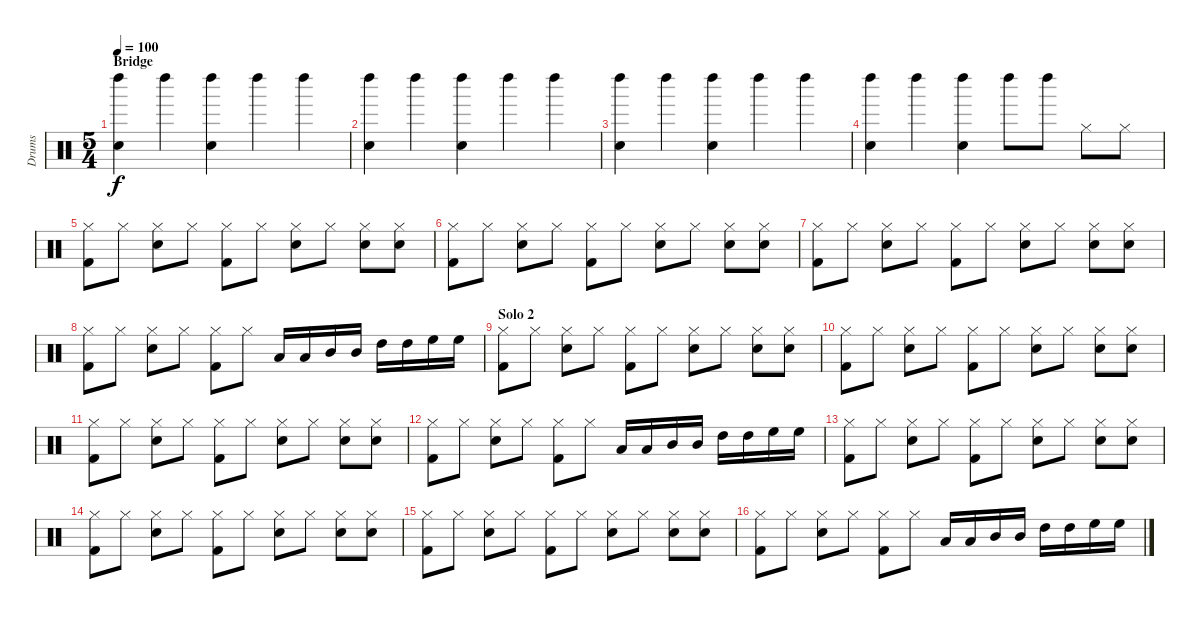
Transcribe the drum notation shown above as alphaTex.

\track ("Drums" "Drums") {instrument percussion}
\staff {score}
\articulation defaults
\ts (5 4)
\section ("" "Bridge")
\tempo 100
\clef neutral
\ks c
("Hand Clap (hit)" "Left Maraca (hit)").4{dy f} "Left Maraca (hit)".4 ("Hand Clap (hit)" "Left Maraca (hit)").4 "Left Maraca (hit)".4 "Left Maraca (hit)".4 |
("Hand Clap (hit)" "Left Maraca (hit)").4 "Left Maraca (hit)".4 ("Hand Clap (hit)" "Left Maraca (hit)").4 "Left Maraca (hit)".4 "Left Maraca (hit)".4 |
("Hand Clap (hit)" "Left Maraca (hit)").4 "Left Maraca (hit)".4 ("Hand Clap (hit)" "Left Maraca (hit)").4 "Left Maraca (hit)".4 "Left Maraca (hit)".4 |
("Hand Clap (hit)" "Left Maraca (hit)").4 "Left Maraca (hit)".4 ("Hand Clap (hit)" "Left Maraca (hit)").4 "Left Maraca (hit)".8 "Left Maraca (hit)".8 "Hi-Hat (closed)".8 "Hi-Hat (closed)".8 |
("Kick (hit) 2" "Hi-Hat (closed)").8 "Hi-Hat (closed)".8 ("Snare (hit) 2" "Hi-Hat (closed)").8 "Hi-Hat (closed)".8 ("Kick (hit) 2" "Hi-Hat (closed)").8 "Hi-Hat (closed)".8 ("Snare (hit) 2" "Hi-Hat (closed)").8 "Hi-Hat (closed)".8 ("Snare (hit) 2" "Hi-Hat (closed)").8 ("Snare (hit) 2" "Hi-Hat (closed)").8 |
("Kick (hit) 2" "Hi-Hat (closed)").8 "Hi-Hat (closed)".8 ("Snare (hit) 2" "Hi-Hat (closed)").8 "Hi-Hat (closed)".8 ("Kick (hit) 2" "Hi-Hat (closed)").8 "Hi-Hat (closed)".8 ("Snare (hit) 2" "Hi-Hat (closed)").8 "Hi-Hat (closed)".8 ("Snare (hit) 2" "Hi-Hat (closed)").8 ("Snare (hit) 2" "Hi-Hat (closed)").8 |
("Kick (hit) 2" "Hi-Hat (closed)").8 "Hi-Hat (closed)".8 ("Snare (hit) 2" "Hi-Hat (closed)").8 "Hi-Hat (closed)".8 ("Kick (hit) 2" "Hi-Hat (closed)").8 "Hi-Hat (closed)".8 ("Snare (hit) 2" "Hi-Hat (closed)").8 "Hi-Hat (closed)".8 ("Snare (hit) 2" "Hi-Hat (closed)").8 ("Snare (hit) 2" "Hi-Hat (closed)").8 |
("Kick (hit) 2" "Hi-Hat (closed)").8 "Hi-Hat (closed)".8 ("Snare (hit) 2" "Hi-Hat (closed)").8 "Hi-Hat (closed)".8 ("Kick (hit) 2" "Hi-Hat (closed)").8 "Hi-Hat (closed)".8 "Low Tom (hit)".16 "Low Tom (hit)".16 "Mid Tom (hit)".16 "Mid Tom (hit)".16 "High Tom (hit)".16 "High Tom (hit)".16 "High Floor Tom (hit)".16 "High Floor Tom (hit)".16 |
\section ("" "Solo 2")
("Kick (hit) 2" "Hi-Hat (closed)").8 "Hi-Hat (closed)".8 ("Snare (hit) 2" "Hi-Hat (closed)").8 "Hi-Hat (closed)".8 ("Kick (hit) 2" "Hi-Hat (closed)").8 "Hi-Hat (closed)".8 ("Snare (hit) 2" "Hi-Hat (closed)").8 "Hi-Hat (closed)".8 ("Snare (hit) 2" "Hi-Hat (closed)").8 ("Snare (hit) 2" "Hi-Hat (closed)").8 |
("Kick (hit) 2" "Hi-Hat (closed)").8 "Hi-Hat (closed)".8 ("Snare (hit) 2" "Hi-Hat (closed)").8 "Hi-Hat (closed)".8 ("Kick (hit) 2" "Hi-Hat (closed)").8 "Hi-Hat (closed)".8 ("Snare (hit) 2" "Hi-Hat (closed)").8 "Hi-Hat (closed)".8 ("Snare (hit) 2" "Hi-Hat (closed)").8 ("Snare (hit) 2" "Hi-Hat (closed)").8 |
("Kick (hit) 2" "Hi-Hat (closed)").8 "Hi-Hat (closed)".8 ("Snare (hit) 2" "Hi-Hat (closed)").8 "Hi-Hat (closed)".8 ("Kick (hit) 2" "Hi-Hat (closed)").8 "Hi-Hat (closed)".8 ("Snare (hit) 2" "Hi-Hat (closed)").8 "Hi-Hat (closed)".8 ("Snare (hit) 2" "Hi-Hat (closed)").8 ("Snare (hit) 2" "Hi-Hat (closed)").8 |
("Kick (hit) 2" "Hi-Hat (closed)").8 "Hi-Hat (closed)".8 ("Snare (hit) 2" "Hi-Hat (closed)").8 "Hi-Hat (closed)".8 ("Kick (hit) 2" "Hi-Hat (closed)").8 "Hi-Hat (closed)".8 "Low Tom (hit)".16 "Low Tom (hit)".16 "Mid Tom (hit)".16 "Mid Tom (hit)".16 "High Tom (hit)".16 "High Tom (hit)".16 "High Floor Tom (hit)".16 "High Floor Tom (hit)".16 |
("Kick (hit) 2" "Hi-Hat (closed)").8 "Hi-Hat (closed)".8 ("Snare (hit) 2" "Hi-Hat (closed)").8 "Hi-Hat (closed)".8 ("Kick (hit) 2" "Hi-Hat (closed)").8 "Hi-Hat (closed)".8 ("Snare (hit) 2" "Hi-Hat (closed)").8 "Hi-Hat (closed)".8 ("Snare (hit) 2" "Hi-Hat (closed)").8 ("Snare (hit) 2" "Hi-Hat (closed)").8 |
("Kick (hit) 2" "Hi-Hat (closed)").8 "Hi-Hat (closed)".8 ("Snare (hit) 2" "Hi-Hat (closed)").8 "Hi-Hat (closed)".8 ("Kick (hit) 2" "Hi-Hat (closed)").8 "Hi-Hat (closed)".8 ("Snare (hit) 2" "Hi-Hat (closed)").8 "Hi-Hat (closed)".8 ("Snare (hit) 2" "Hi-Hat (closed)").8 ("Snare (hit) 2" "Hi-Hat (closed)").8 |
("Kick (hit) 2" "Hi-Hat (closed)").8 "Hi-Hat (closed)".8 ("Snare (hit) 2" "Hi-Hat (closed)").8 "Hi-Hat (closed)".8 ("Kick (hit) 2" "Hi-Hat (closed)").8 "Hi-Hat (closed)".8 ("Snare (hit) 2" "Hi-Hat (closed)").8 "Hi-Hat (closed)".8 ("Snare (hit) 2" "Hi-Hat (closed)").8 ("Snare (hit) 2" "Hi-Hat (closed)").8 |
("Kick (hit) 2" "Hi-Hat (closed)").8 "Hi-Hat (closed)".8 ("Snare (hit) 2" "Hi-Hat (closed)").8 "Hi-Hat (closed)".8 ("Kick (hit) 2" "Hi-Hat (closed)").8 "Hi-Hat (closed)".8 "Low Tom (hit)".16 "Low Tom (hit)".16 "Mid Tom (hit)".16 "Mid Tom (hit)".16 "High Tom (hit)".16 "High Tom (hit)".16 "High Floor Tom (hit)".16 "High Floor Tom (hit)".16
